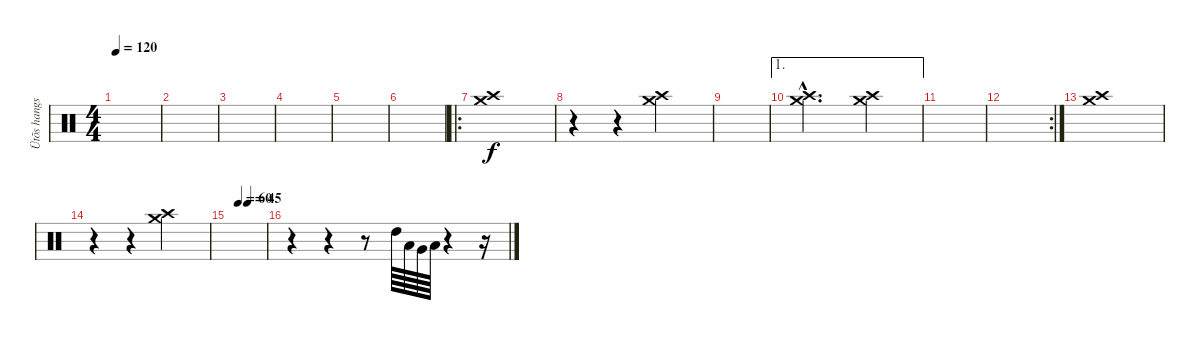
\track ("Ütõs hangszer" "Ütõs hangs") {instrument percussion}
\staff {score}
\articulation defaults
\ts (4 4)
\tempo 120
\clef neutral
\ks c
|
|
|
|
|
|
\ro
("Crash medium (hit)" "Crash high (hit)").1{dy f} |
r.4 r.4 ("Crash high (hit)" "Crash medium (hit)").2 |
|
\ae 1
("Crash medium (hit)"{hac} "Crash high (hit)"{hac}).2{d} ("Crash high (hit)" "Crash medium (hit)").4 |
|
\rc 2
|
("Crash medium (hit)" "Crash high (hit)").1 |
r.4 r.4 ("Crash high (hit)" "Crash medium (hit)").2 |
\tempo (60 0.25)
\tempo (45 0.5)
|
r.4 r.4 r.8 "High Tom (hit)".64 "Low Tom (hit)".64 "Very Low Tom (hit)".64 "Low Floor Tom (hit)".64 r.4 r.16
